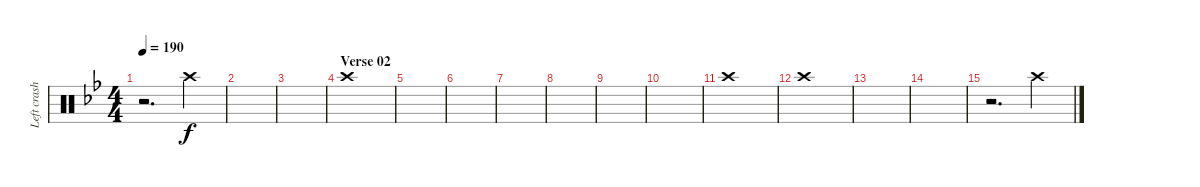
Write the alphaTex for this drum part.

\track ("Left crash" "Left crash") {instrument percussion}
\staff {score}
\articulation defaults
\ts (4 4)
\tempo 190
\clef neutral
\ks bb
r.2{d dy f} "Crash high (hit)".4 |
|
|
\section ("" "Verse 02")
"Crash high (hit)".1 |
|
|
|
|
|
|
"Crash high (hit)".1 |
"Crash high (hit)".1 |
|
|
r.2{d} "Crash high (hit)".4
